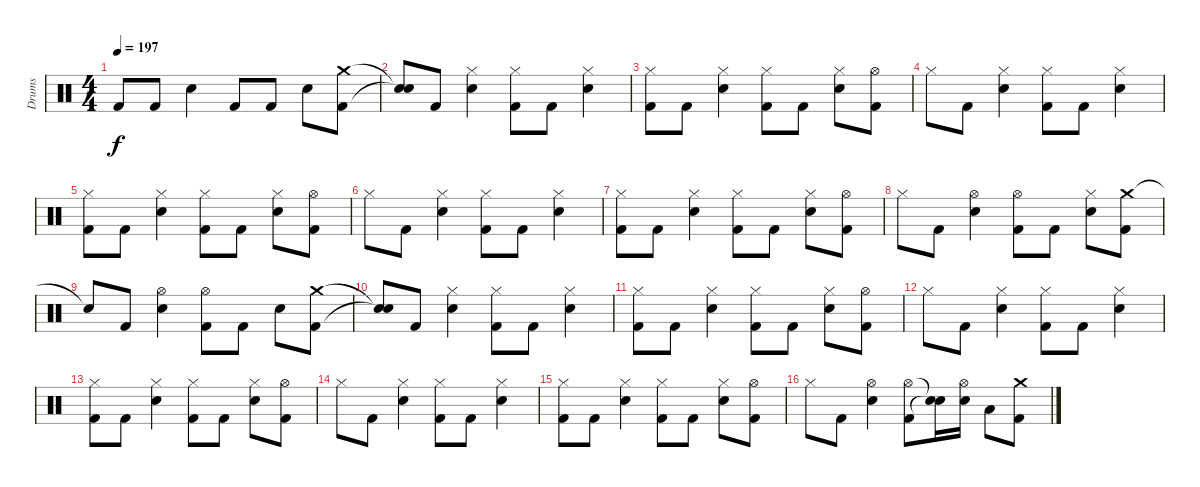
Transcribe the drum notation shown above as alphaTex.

\track ("Drums" "Drums") {instrument percussion}
\staff {score}
\articulation defaults
\ts (4 4)
\tempo 197
\clef neutral
\ks c "Kick (hit) 2".8{dy f} "Kick (hit) 2".8 "Electric Snare (hit)".4 "Kick (hit) 2".8 "Kick (hit) 2".8 "Electric Snare (hit)".8
("Crash medium (hit)" "Kick (hit) 2").8 |
\section ("" "")
("Snare (hit)"{t} "Snare (hit)"{t}).8 "Kick (hit) 2".8 ("Hi-Hat (closed)" "Electric Snare (hit)").4 ("Hi-Hat (closed)" "Kick (hit) 2").8 "Kick (hit) 2".8 ("Hi-Hat (closed)" "Electric Snare (hit)").4 |
("Hi-Hat (closed)" "Kick (hit) 2").8 "Kick (hit) 2".8 ("Hi-Hat (closed)" "Electric Snare (hit)").4 ("Hi-Hat (closed)" "Kick (hit) 2").8 "Kick (hit) 2".8 ("Hi-Hat (closed)" "Electric Snare (hit)").8 ("Hi-Hat (open)" "Kick (hit) 2").8 |
"Hi-Hat (closed)".8 "Kick (hit) 2".8 ("Hi-Hat (closed)" "Electric Snare (hit)").4 ("Hi-Hat (closed)" "Kick (hit) 2").8 "Kick (hit) 2".8 ("Hi-Hat (closed)" "Electric Snare (hit)").4 |
("Hi-Hat (closed)" "Kick (hit) 2").8 "Kick (hit) 2".8 ("Hi-Hat (closed)" "Electric Snare (hit)").4 ("Hi-Hat (closed)" "Kick (hit) 2").8 "Kick (hit) 2".8 ("Hi-Hat (closed)" "Electric Snare (hit)").8 ("Hi-Hat (open)" "Kick (hit) 2").8 |
"Hi-Hat (closed)".8 "Kick (hit) 2".8 ("Hi-Hat (closed)" "Electric Snare (hit)").4 ("Hi-Hat (closed)" "Kick (hit) 2").8 "Kick (hit) 2".8 ("Hi-Hat (closed)" "Electric Snare (hit)").4 |
("Hi-Hat (closed)" "Kick (hit) 2").8 "Kick (hit) 2".8 ("Hi-Hat (closed)" "Electric Snare (hit)").4 ("Hi-Hat (closed)" "Kick (hit) 2").8 "Kick (hit) 2".8 ("Hi-Hat (closed)" "Electric Snare (hit)").8 ("Hi-Hat (open)" "Kick (hit) 2").8 |
"Hi-Hat (closed)".8 "Kick (hit) 2".8 ("Hi-Hat (open)" "Electric Snare (hit)").4 ("Hi-Hat (open)" "Kick (hit) 2").8 "Kick (hit) 2".8 ("Hi-Hat (closed)" "Electric Snare (hit)").8 ("Crash medium (hit)" "Kick (hit) 2").8 |
"Snare (hit)"{t}.8 "Kick (hit) 2".8 ("Hi-Hat (open)" "Electric Snare (hit)").4 ("Hi-Hat (open)" "Kick (hit) 2").8 "Kick (hit) 2".8 "Electric Snare (hit)".8 ("Crash medium (hit)" "Kick (hit) 2").8 |
\section ("" "")
("Snare (hit)"{t} "Snare (hit)"{t}).8 "Kick (hit) 2".8 ("Hi-Hat (closed)" "Electric Snare (hit)").4 ("Hi-Hat (closed)" "Kick (hit) 2").8 "Kick (hit) 2".8 ("Hi-Hat (closed)" "Electric Snare (hit)").4 |
("Hi-Hat (closed)" "Kick (hit) 2").8 "Kick (hit) 2".8 ("Hi-Hat (closed)" "Electric Snare (hit)").4 ("Hi-Hat (closed)" "Kick (hit) 2").8 "Kick (hit) 2".8 ("Hi-Hat (closed)" "Electric Snare (hit)").8 ("Hi-Hat (open)" "Kick (hit) 2").8 |
"Hi-Hat (closed)".8 "Kick (hit) 2".8 ("Hi-Hat (closed)" "Electric Snare (hit)").4 ("Hi-Hat (closed)" "Kick (hit) 2").8 "Kick (hit) 2".8 ("Hi-Hat (closed)" "Electric Snare (hit)").4 |
("Hi-Hat (closed)" "Kick (hit) 2").8 "Kick (hit) 2".8 ("Hi-Hat (closed)" "Electric Snare (hit)").4 ("Hi-Hat (closed)" "Kick (hit) 2").8 "Kick (hit) 2".8 ("Hi-Hat (closed)" "Electric Snare (hit)").8 ("Hi-Hat (open)" "Kick (hit) 2").8 |
"Hi-Hat (closed)".8 "Kick (hit) 2".8 ("Hi-Hat (closed)" "Electric Snare (hit)").4 ("Hi-Hat (closed)" "Kick (hit) 2").8 "Kick (hit) 2".8 ("Hi-Hat (closed)" "Electric Snare (hit)").4 |
("Hi-Hat (closed)" "Kick (hit) 2").8 "Kick (hit) 2".8 ("Hi-Hat (closed)" "Electric Snare (hit)").4 ("Hi-Hat (closed)" "Kick (hit) 2").8 "Kick (hit) 2".8 ("Hi-Hat (closed)" "Electric Snare (hit)").8 ("Hi-Hat (open)" "Kick (hit) 2").8 |
"Hi-Hat (closed)".8 "Kick (hit) 2".8 ("Hi-Hat (open)" "Electric Snare (hit)").4 ("Hi-Hat (open)" "Kick (hit) 2").8 ("Snare (hit)"{t} "Snare (hit)"{t}).16 ("Hi-Hat (open)" "Electric Snare (hit)").16 "Low Floor Tom (hit)".8 ("Crash medium (hit)" "Kick (hit) 2").8
